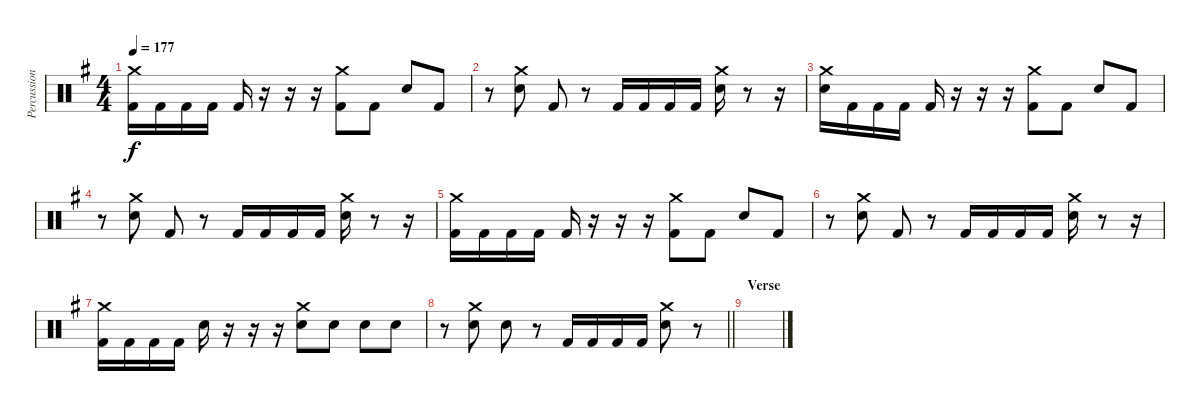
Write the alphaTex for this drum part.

\track ("Percussion" "Percussion") {instrument percussion}
\staff {score}
\articulation defaults
\ts (4 4)
\tempo 177
\clef neutral
\ks g
("Crash medium (hit)" "Kick (hit) 2").16{dy f} "Kick (hit) 2".16 "Kick (hit) 2".16 "Kick (hit) 2".16 "Kick (hit) 2".16 r.16 r.16 r.16 ("Crash medium (hit)" "Kick (hit) 2").8 "Kick (hit) 2".8 "Electric Snare (hit)".8 "Kick (hit) 2".8 |
r.8 ("Crash medium (hit)" "Electric Snare (hit)").8 "Kick (hit) 2".8 r.8 "Kick (hit) 2".16 "Kick (hit) 2".16 "Kick (hit) 2".16 "Kick (hit) 2".16 ("Crash medium (hit)" "Electric Snare (hit)").16 r.8 r.16 |
("Crash medium (hit)" "Electric Snare (hit)").16 "Kick (hit) 2".16 "Kick (hit) 2".16 "Kick (hit) 2".16 "Kick (hit) 2".16 r.16 r.16 r.16 ("Crash medium (hit)" "Kick (hit) 2").8 "Kick (hit) 2".8 "Electric Snare (hit)".8 "Kick (hit) 2".8 |
r.8 ("Crash medium (hit)" "Electric Snare (hit)").8 "Kick (hit) 2".8 r.8 "Kick (hit) 2".16 "Kick (hit) 2".16 "Kick (hit) 2".16 "Kick (hit) 2".16 ("Crash medium (hit)" "Electric Snare (hit)").16 r.8 r.16 |
("Crash medium (hit)" "Kick (hit) 2").16 "Kick (hit) 2".16 "Kick (hit) 2".16 "Kick (hit) 2".16 "Kick (hit) 2".16 r.16 r.16 r.16 ("Crash medium (hit)" "Kick (hit) 2").8 "Kick (hit) 2".8 "Electric Snare (hit)".8 "Kick (hit) 2".8 |
r.8 ("Crash medium (hit)" "Electric Snare (hit)").8 "Kick (hit) 2".8 r.8 "Kick (hit) 2".16 "Kick (hit) 2".16 "Kick (hit) 2".16 "Kick (hit) 2".16 ("Crash medium (hit)" "Electric Snare (hit)").16 r.8 r.16 |
("Crash medium (hit)" "Kick (hit) 2").16 "Kick (hit) 2".16 "Kick (hit) 2".16 "Kick (hit) 2".16 "Electric Snare (hit)".16 r.16 r.16 r.16 ("Crash medium (hit)" "Electric Snare (hit)").8 "Electric Snare (hit)".8 "Electric Snare (hit)".8 "Electric Snare (hit)".8 |
\barLineRight lightlight
r.8 ("Crash medium (hit)" "Electric Snare (hit)").8 "Electric Snare (hit)".8 r.8 "Kick (hit) 2".16 "Kick (hit) 2".16 "Kick (hit) 2".16 "Kick (hit) 2".16 ("Crash medium (hit)" "Electric Snare (hit)").8 r.8 |
\section ("" "Verse")
